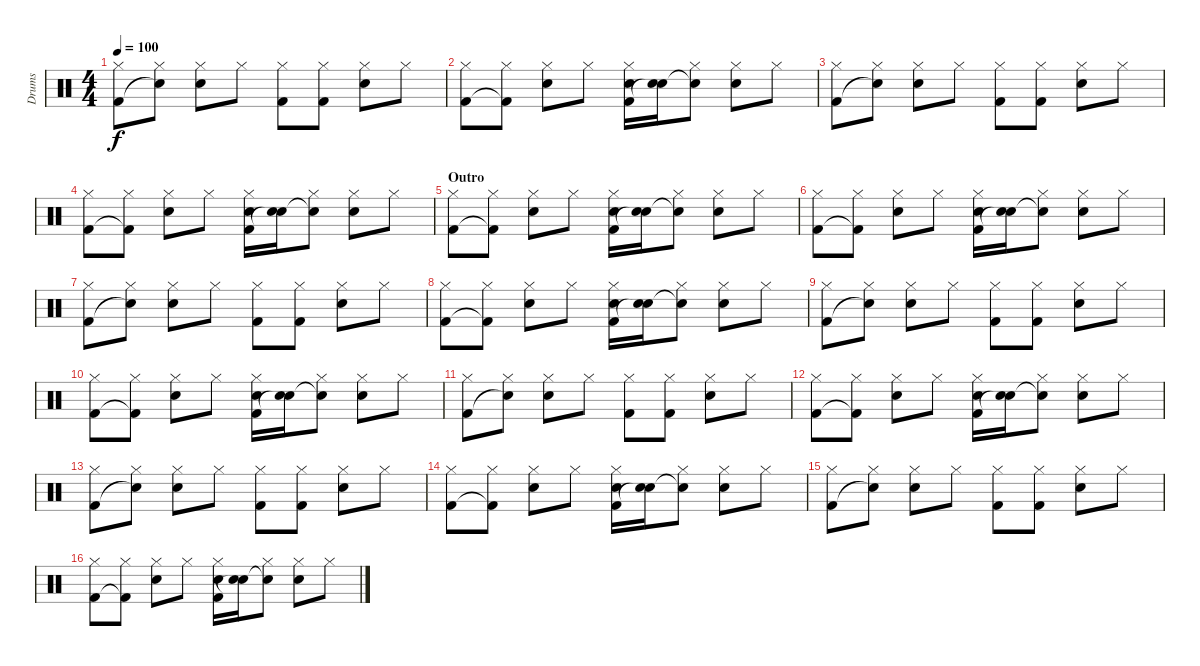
\track ("Drums" "Drums") {instrument percussion}
\staff {score}
\articulation defaults
\ts (4 4)
\tempo 100
\clef neutral
\ks c
("Kick (hit) 2" "Hi-Hat (closed)").8{dy f} ("Snare (hit)"{t} "Hi-Hat (closed)").8 ("Snare (hit) 2" "Hi-Hat (closed)").8 "Hi-Hat (closed)".8 ("Kick (hit) 2" "Hi-Hat (closed)").8 ("Kick (hit) 2" "Hi-Hat (closed)").8 ("Snare (hit) 2" "Hi-Hat (closed)").8 "Hi-Hat (closed)".8 |
("Kick (hit) 2" "Hi-Hat (closed)").8 ("Kick (hit) 2"{t} "Hi-Hat (closed)").8 ("Snare (hit) 2" "Hi-Hat (closed)").8 "Hi-Hat (closed)".8 ("Kick (hit) 2" "Snare (hit) 2" "Hi-Hat (closed)").16 ("Snare (hit)"{t} "Snare (hit) 2").16 ("Snare (hit)"{t} "Hi-Hat (closed)").8 ("Snare (hit) 2" "Hi-Hat (closed)").8 "Hi-Hat (closed)".8 |
("Kick (hit) 2" "Hi-Hat (closed)").8 ("Snare (hit)"{t} "Hi-Hat (closed)").8 ("Snare (hit) 2" "Hi-Hat (closed)").8 "Hi-Hat (closed)".8 ("Kick (hit) 2" "Hi-Hat (closed)").8 ("Kick (hit) 2" "Hi-Hat (closed)").8 ("Snare (hit) 2" "Hi-Hat (closed)").8 "Hi-Hat (closed)".8 |
("Kick (hit) 2" "Hi-Hat (closed)").8 ("Kick (hit) 2"{t} "Hi-Hat (closed)").8 ("Snare (hit) 2" "Hi-Hat (closed)").8 "Hi-Hat (closed)".8 ("Kick (hit) 2" "Snare (hit) 2" "Hi-Hat (closed)").16 ("Snare (hit)"{t} "Snare (hit) 2").16 ("Snare (hit)"{t} "Hi-Hat (closed)").8 ("Snare (hit) 2" "Hi-Hat (closed)").8 "Hi-Hat (closed)".8 |
\section ("" "Outro")
("Kick (hit) 2" "Hi-Hat (closed)").8 ("Kick (hit) 2"{t} "Hi-Hat (closed)").8 ("Snare (hit) 2" "Hi-Hat (closed)").8 "Hi-Hat (closed)".8 ("Kick (hit) 2" "Snare (hit) 2" "Hi-Hat (closed)").16 ("Snare (hit)"{t} "Snare (hit) 2").16 ("Snare (hit)"{t} "Hi-Hat (closed)").8 ("Snare (hit) 2" "Hi-Hat (closed)").8 "Hi-Hat (closed)".8 |
("Kick (hit) 2" "Hi-Hat (closed)").8 ("Kick (hit) 2"{t} "Hi-Hat (closed)").8 ("Snare (hit) 2" "Hi-Hat (closed)").8 "Hi-Hat (closed)".8 ("Kick (hit) 2" "Snare (hit) 2" "Hi-Hat (closed)").16 ("Snare (hit)"{t} "Snare (hit) 2").16 ("Snare (hit)"{t} "Hi-Hat (closed)").8 ("Snare (hit) 2" "Hi-Hat (closed)").8 "Hi-Hat (closed)".8 |
("Kick (hit) 2" "Hi-Hat (closed)").8 ("Snare (hit)"{t} "Hi-Hat (closed)").8 ("Snare (hit) 2" "Hi-Hat (closed)").8 "Hi-Hat (closed)".8 ("Kick (hit) 2" "Hi-Hat (closed)").8 ("Kick (hit) 2" "Hi-Hat (closed)").8 ("Snare (hit) 2" "Hi-Hat (closed)").8 "Hi-Hat (closed)".8 |
("Kick (hit) 2" "Hi-Hat (closed)").8 ("Kick (hit) 2"{t} "Hi-Hat (closed)").8 ("Snare (hit) 2" "Hi-Hat (closed)").8 "Hi-Hat (closed)".8 ("Kick (hit) 2" "Snare (hit) 2" "Hi-Hat (closed)").16 ("Snare (hit)"{t} "Snare (hit) 2").16 ("Snare (hit)"{t} "Hi-Hat (closed)").8 ("Snare (hit) 2" "Hi-Hat (closed)").8 "Hi-Hat (closed)".8 |
("Kick (hit) 2" "Hi-Hat (closed)").8 ("Snare (hit)"{t} "Hi-Hat (closed)").8 ("Snare (hit) 2" "Hi-Hat (closed)").8 "Hi-Hat (closed)".8 ("Kick (hit) 2" "Hi-Hat (closed)").8 ("Kick (hit) 2" "Hi-Hat (closed)").8 ("Snare (hit) 2" "Hi-Hat (closed)").8 "Hi-Hat (closed)".8 |
("Kick (hit) 2" "Hi-Hat (closed)").8 ("Kick (hit) 2"{t} "Hi-Hat (closed)").8 ("Snare (hit) 2" "Hi-Hat (closed)").8 "Hi-Hat (closed)".8 ("Kick (hit) 2" "Snare (hit) 2" "Hi-Hat (closed)").16 ("Snare (hit)"{t} "Snare (hit) 2").16 ("Snare (hit)"{t} "Hi-Hat (closed)").8 ("Snare (hit) 2" "Hi-Hat (closed)").8 "Hi-Hat (closed)".8 |
("Kick (hit) 2" "Hi-Hat (closed)").8 ("Snare (hit)"{t} "Hi-Hat (closed)").8 ("Snare (hit) 2" "Hi-Hat (closed)").8 "Hi-Hat (closed)".8 ("Kick (hit) 2" "Hi-Hat (closed)").8 ("Kick (hit) 2" "Hi-Hat (closed)").8 ("Snare (hit) 2" "Hi-Hat (closed)").8 "Hi-Hat (closed)".8 |
("Kick (hit) 2" "Hi-Hat (closed)").8 ("Kick (hit) 2"{t} "Hi-Hat (closed)").8 ("Snare (hit) 2" "Hi-Hat (closed)").8 "Hi-Hat (closed)".8 ("Kick (hit) 2" "Snare (hit) 2" "Hi-Hat (closed)").16 ("Snare (hit)"{t} "Snare (hit) 2").16 ("Snare (hit)"{t} "Hi-Hat (closed)").8 ("Snare (hit) 2" "Hi-Hat (closed)").8 "Hi-Hat (closed)".8 |
("Kick (hit) 2" "Hi-Hat (closed)").8 ("Snare (hit)"{t} "Hi-Hat (closed)").8 ("Snare (hit) 2" "Hi-Hat (closed)").8 "Hi-Hat (closed)".8 ("Kick (hit) 2" "Hi-Hat (closed)").8 ("Kick (hit) 2" "Hi-Hat (closed)").8 ("Snare (hit) 2" "Hi-Hat (closed)").8 "Hi-Hat (closed)".8 |
("Kick (hit) 2" "Hi-Hat (closed)").8 ("Kick (hit) 2"{t} "Hi-Hat (closed)").8 ("Snare (hit) 2" "Hi-Hat (closed)").8 "Hi-Hat (closed)".8 ("Kick (hit) 2" "Snare (hit) 2" "Hi-Hat (closed)").16 ("Snare (hit)"{t} "Snare (hit) 2").16 ("Snare (hit)"{t} "Hi-Hat (closed)").8 ("Snare (hit) 2" "Hi-Hat (closed)").8 "Hi-Hat (closed)".8 |
("Kick (hit) 2" "Hi-Hat (closed)").8 ("Snare (hit)"{t} "Hi-Hat (closed)").8 ("Snare (hit) 2" "Hi-Hat (closed)").8 "Hi-Hat (closed)".8 ("Kick (hit) 2" "Hi-Hat (closed)").8 ("Kick (hit) 2" "Hi-Hat (closed)").8 ("Snare (hit) 2" "Hi-Hat (closed)").8 "Hi-Hat (closed)".8 |
("Kick (hit) 2" "Hi-Hat (closed)").8 ("Kick (hit) 2"{t} "Hi-Hat (closed)").8 ("Snare (hit) 2" "Hi-Hat (closed)").8 "Hi-Hat (closed)".8 ("Kick (hit) 2" "Snare (hit) 2" "Hi-Hat (closed)").16 ("Snare (hit)"{t} "Snare (hit) 2").16 ("Snare (hit)"{t} "Hi-Hat (closed)").8 ("Snare (hit) 2" "Hi-Hat (closed)").8 "Hi-Hat (closed)".8
